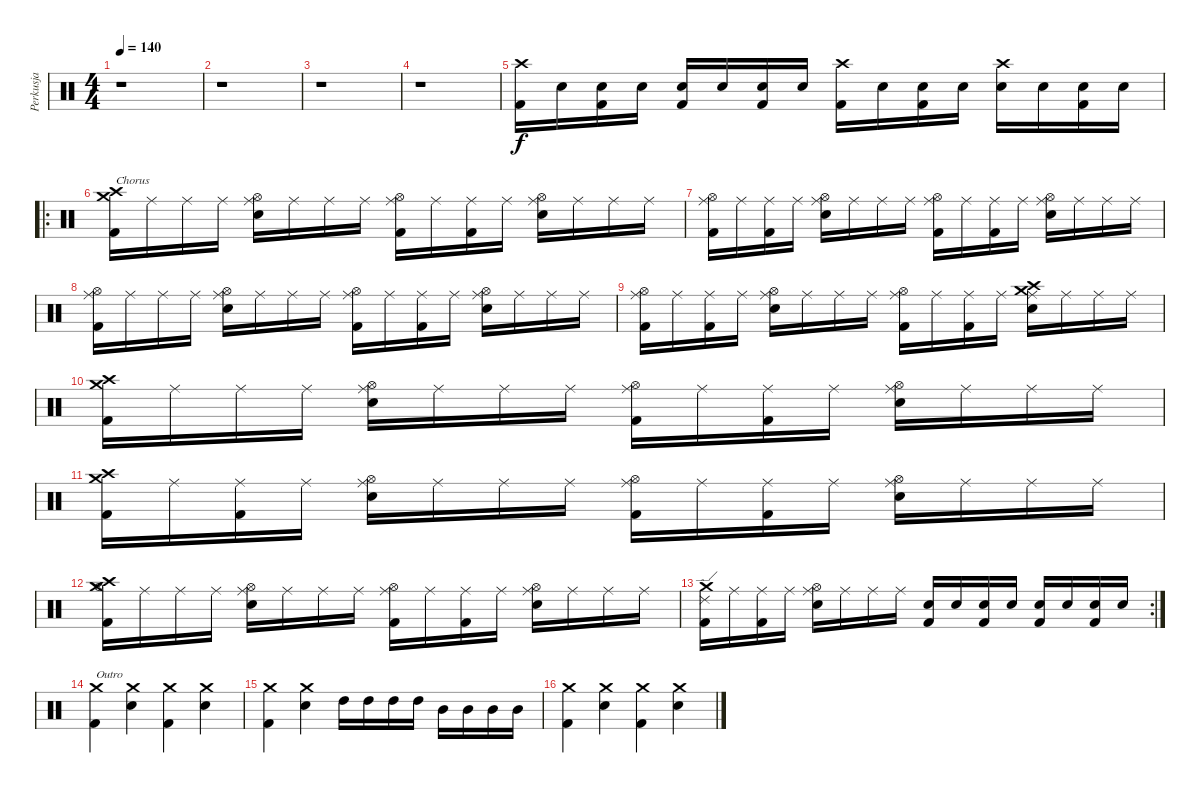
\track ("Perkusja" "Perkusja") {instrument percussion}
\staff {score}
\articulation defaults
\ts (4 4)
\tempo 140
\clef neutral
\ks c
r.1{dy f} |
r.1 |
r.1 |
r.1 |
("Crash high (hit)" "Kick (hit) 2").16 "Snare (hit) 2".16 ("Kick (hit) 2" "Snare (hit) 2").16 "Snare (hit) 2".16 ("Kick (hit) 2" "Snare (hit) 2").16 "Snare (hit) 2".16 ("Kick (hit) 2" "Snare (hit) 2").16 "Snare (hit) 2".16 ("Crash high (hit)" "Kick (hit) 2").16 "Snare (hit) 2".16 ("Kick (hit) 2" "Snare (hit) 2").16 "Snare (hit) 2".16 ("Crash high (hit)" "Snare (hit) 2").16 "Snare (hit) 2".16 ("Kick (hit) 2" "Snare (hit) 2").16 "Snare (hit) 2".16 |
\ro
("Crash medium (hit)" "Crash high (hit)" "Kick (hit) 2").16{txt "Chorus"} "Ride (middle)".16 "Ride (middle)".16 "Ride (middle)".16 ("Ride (middle)" "Hi-Hat (open)" "Snare (hit) 2").16 "Ride (middle)".16 "Ride (middle)".16 "Ride (middle)".16 ("Ride (middle)" "Hi-Hat (open)" "Kick (hit) 2").16 "Ride (middle)".16 ("Ride (middle)" "Kick (hit) 2").16 "Ride (middle)".16 ("Ride (middle)" "Hi-Hat (open)" "Snare (hit) 2").16 "Ride (middle)".16 "Ride (middle)".16 "Ride (middle)".16 |
("Ride (middle)" "Hi-Hat (open)" "Kick (hit) 2").16 "Ride (middle)".16 ("Ride (middle)" "Kick (hit) 2").16 "Ride (middle)".16 ("Ride (middle)" "Hi-Hat (open)" "Snare (hit) 2").16 "Ride (middle)".16 "Ride (middle)".16 "Ride (middle)".16 ("Ride (middle)" "Hi-Hat (open)" "Kick (hit) 2").16 "Ride (middle)".16 ("Ride (middle)" "Kick (hit) 2").16 "Ride (middle)".16 ("Ride (middle)" "Hi-Hat (open)" "Snare (hit) 2").16 "Ride (middle)".16 "Ride (middle)".16 "Ride (middle)".16 |
("Ride (middle)" "Hi-Hat (open)" "Kick (hit) 2").16 "Ride (middle)".16 "Ride (middle)".16 "Ride (middle)".16 ("Ride (middle)" "Hi-Hat (open)" "Snare (hit) 2").16 "Ride (middle)".16 "Ride (middle)".16 "Ride (middle)".16 ("Ride (middle)" "Hi-Hat (open)" "Kick (hit) 2").16 "Ride (middle)".16 ("Ride (middle)" "Kick (hit) 2").16 "Ride (middle)".16 ("Ride (middle)" "Hi-Hat (open)" "Snare (hit) 2").16 "Ride (middle)".16 "Ride (middle)".16 "Ride (middle)".16 |
("Ride (middle)" "Hi-Hat (open)" "Kick (hit) 2").16 "Ride (middle)".16 ("Ride (middle)" "Kick (hit) 2").16 "Ride (middle)".16 ("Ride (middle)" "Hi-Hat (open)" "Snare (hit) 2").16 "Ride (middle)".16 "Ride (middle)".16 "Ride (middle)".16 ("Ride (middle)" "Hi-Hat (open)" "Kick (hit) 2").16 "Ride (middle)".16 ("Ride (middle)" "Kick (hit) 2").16 "Ride (middle)".16 ("Crash medium (hit)" "Crash high (hit)" "Ride (middle)" "Snare (hit) 2").16 "Ride (middle)".16 "Ride (middle)".16 "Ride (middle)".16 |
("Crash medium (hit)" "Crash high (hit)" "Kick (hit) 2").16 "Ride (middle)".16 "Ride (middle)".16 "Ride (middle)".16 ("Ride (middle)" "Hi-Hat (open)" "Snare (hit) 2").16 "Ride (middle)".16 "Ride (middle)".16 "Ride (middle)".16 ("Ride (middle)" "Hi-Hat (open)" "Kick (hit) 2").16 "Ride (middle)".16 ("Ride (middle)" "Kick (hit) 2").16 "Ride (middle)".16 ("Ride (middle)" "Hi-Hat (open)" "Snare (hit) 2").16 "Ride (middle)".16 "Ride (middle)".16 "Ride (middle)".16 |
("Crash medium (hit)" "Crash high (hit)" "Kick (hit) 2").16 "Ride (middle)".16 ("Ride (middle)" "Kick (hit) 2").16 "Ride (middle)".16 ("Ride (middle)" "Hi-Hat (open)" "Snare (hit) 2").16 "Ride (middle)".16 "Ride (middle)".16 "Ride (middle)".16 ("Ride (middle)" "Hi-Hat (open)" "Kick (hit) 2").16 "Ride (middle)".16 ("Ride (middle)" "Kick (hit) 2").16 "Ride (middle)".16 ("Ride (middle)" "Hi-Hat (open)" "Snare (hit) 2").16 "Ride (middle)".16 "Ride (middle)".16 "Ride (middle)".16 |
("Crash medium (hit)" "Crash high (hit)" "Hi-Hat (open)" "Kick (hit) 2").16 "Ride (middle)".16 "Ride (middle)".16 "Ride (middle)".16 ("Ride (middle)" "Hi-Hat (open)" "Snare (hit) 2").16 "Ride (middle)".16 "Ride (middle)".16 "Ride (middle)".16 ("Ride (middle)" "Hi-Hat (open)" "Kick (hit) 2").16 "Ride (middle)".16 ("Ride (middle)" "Kick (hit) 2").16 "Ride (middle)".16 ("Ride (middle)" "Hi-Hat (open)" "Snare (hit) 2").16 "Ride (middle)".16 "Ride (middle)".16 "Ride (middle)".16 |
\rc 2
("Crash medium (hit)" "Ride (edge) 2" "Kick (hit) 2").16 "Ride (middle)".16 ("Ride (middle)" "Kick (hit) 2").16 "Ride (middle)".16 ("Ride (middle)" "Hi-Hat (open)" "Snare (hit) 2").16 "Ride (middle)".16 "Ride (middle)".16 "Ride (middle)".16 ("Snare (hit) 2" "Kick (hit) 2").16 "Snare (hit) 2".16 ("Snare (hit) 2" "Kick (hit) 2").16 "Snare (hit) 2".16 ("Snare (hit) 2" "Kick (hit) 2").16 "Snare (hit) 2".16 ("Snare (hit) 2" "Kick (hit) 2").16 "Snare (hit) 2".16 |
("Crash medium (hit)" "Kick (hit) 2").4{txt "Outro"} ("Crash medium (hit)" "Snare (hit) 2").4 ("Crash medium (hit)" "Kick (hit) 2").4 ("Crash medium (hit)" "Snare (hit) 2").4 |
("Crash medium (hit)" "Kick (hit) 2").4 ("Crash medium (hit)" "Snare (hit) 2").4 "High Tom (hit)".16 "High Tom (hit)".16 "High Tom (hit)".16 "High Tom (hit)".16 "Mid Tom (hit)".16 "Mid Tom (hit)".16 "Mid Tom (hit)".16 "Mid Tom (hit)".16 |
("Crash medium (hit)" "Kick (hit) 2").4 ("Crash medium (hit)" "Snare (hit) 2").4 ("Crash medium (hit)" "Kick (hit) 2").4 ("Crash medium (hit)" "Snare (hit) 2").4
